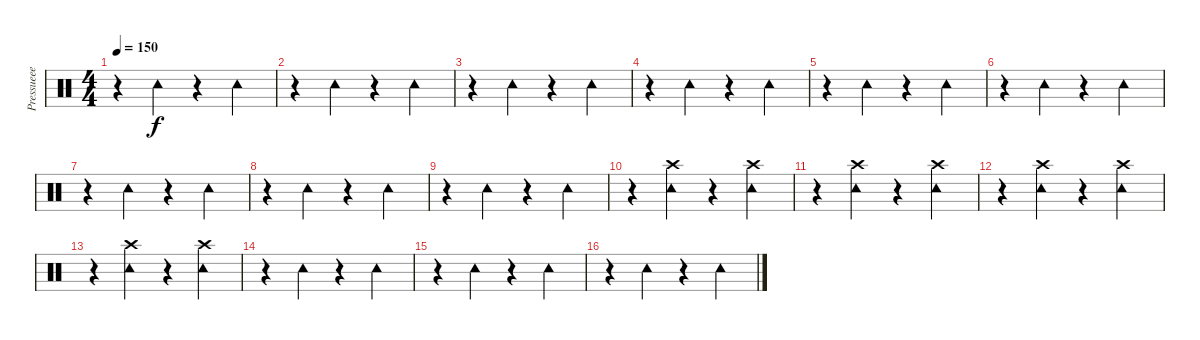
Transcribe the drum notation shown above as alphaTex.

\track ("Pressueee " "Pressueee ") {instrument percussion}
\staff {score}
\articulation defaults
\ts (4 4)
\tempo 150
\clef neutral
\ks c
r.4{dy f} "Tambourine (hit)".4 r.4 "Tambourine (hit)".4 |
r.4 "Tambourine (hit)".4 r.4 "Tambourine (hit)".4 |
r.4 "Tambourine (hit)".4 r.4 "Tambourine (hit)".4 |
r.4 "Tambourine (hit)".4 r.4 "Tambourine (hit)".4 |
r.4 "Tambourine (hit)".4 r.4 "Tambourine (hit)".4 |
r.4 "Tambourine (hit)".4 r.4 "Tambourine (hit)".4 |
r.4 "Tambourine (hit)".4 r.4 "Tambourine (hit)".4 |
r.4 "Tambourine (hit)".4 r.4 "Tambourine (hit)".4 |
r.4 "Tambourine (hit)".4 r.4 "Tambourine (hit)".4 |
r.4 ("Crash high (hit)" "Tambourine (hit)").4 r.4 ("Crash high (hit)" "Tambourine (hit)").4 |
r.4 ("Crash high (hit)" "Tambourine (hit)").4 r.4 ("Crash high (hit)" "Tambourine (hit)").4 |
r.4 ("Crash high (hit)" "Tambourine (hit)").4 r.4 ("Crash high (hit)" "Tambourine (hit)").4 |
r.4 ("Crash high (hit)" "Tambourine (hit)").4 r.4 ("Crash high (hit)" "Tambourine (hit)").4 |
r.4 "Tambourine (hit)".4 r.4 "Tambourine (hit)".4 |
r.4 "Tambourine (hit)".4 r.4 "Tambourine (hit)".4 |
r.4 "Tambourine (hit)".4 r.4 "Tambourine (hit)".4
